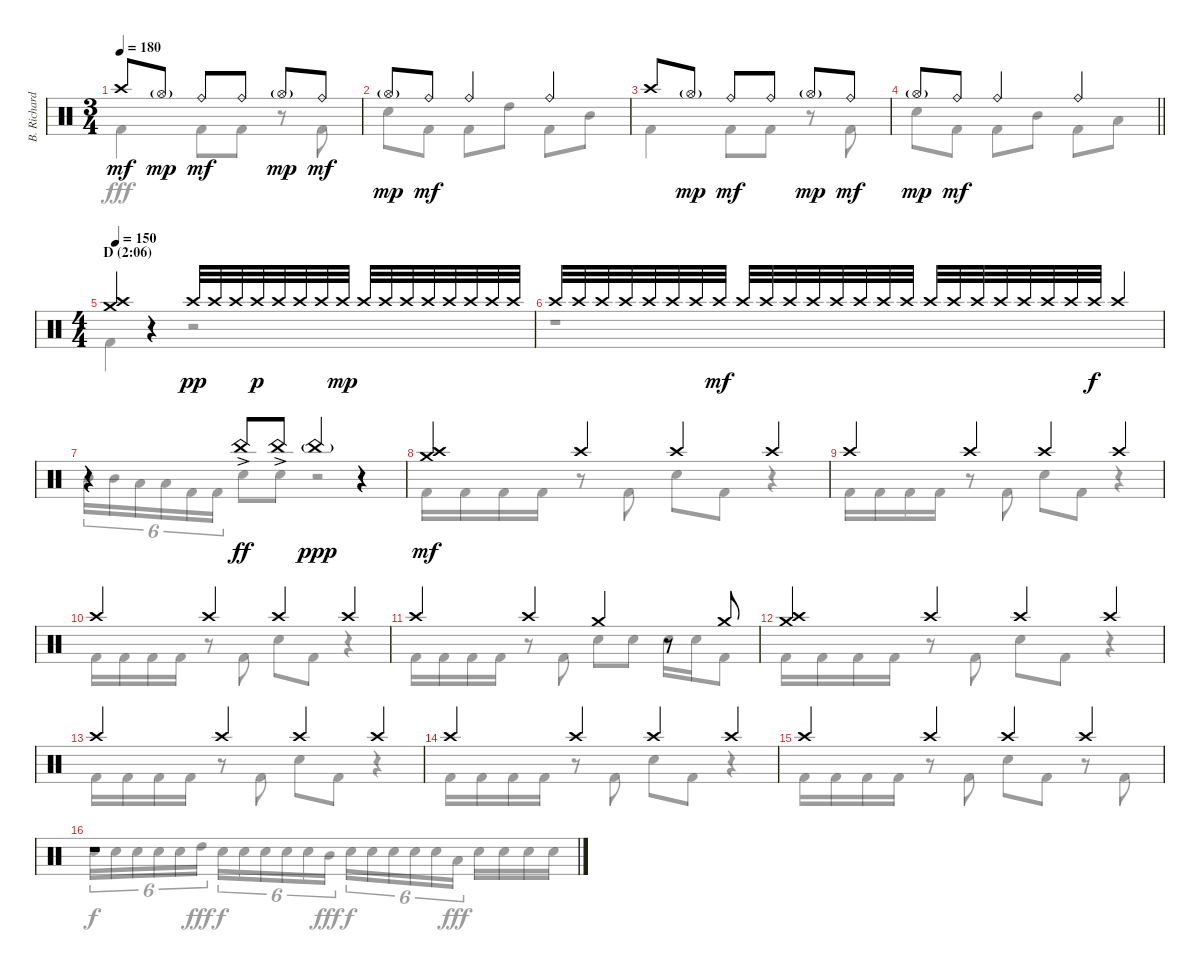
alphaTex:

\track ("B. Richardson Drums" "B. Richard") {instrument percussion}
\staff {score}
\articulation defaults
\voice
\ts (3 4)
\tempo 180
\clef neutral
\ks c "Crash high (hit)".8{dy mf} "Hi-Hat (open)"{g}.8{dy mp} "Ride (bell)".8{dy mf} "Ride (bell)".8 "Hi-Hat (open)"{g}.8{dy mp} "Ride (bell)".8{dy mf}
|
"Hi-Hat (open)"{g}.8{dy mp} "Ride (bell)".8{dy mf} "Ride (bell)".4 "Ride (bell)".4 |
"Crash high (hit)".8 "Hi-Hat (open)"{g}.8{dy mp} "Ride (bell)".8{dy mf} "Ride (bell)".8 "Hi-Hat (open)"{g}.8{dy mp} "Ride (bell)".8{dy mf} |
\barLineRight lightlight "Hi-Hat (open)"{g}.8{dy mp} "Ride (bell)".8{dy mf} "Ride (bell)".4 "Ride (bell)".4
|
\ts (4 4)
\section ("" "D (2:06)")
\tempo 150
("Crash high (hit)" "Crash medium (hit)").4 r.4 "Crash high (hit)".32{dy pp} "Crash high (hit)".32 "Crash high (hit)".32 "Crash high (hit)".32{dy p} "Crash high (hit)".32 "Crash high (hit)".32 "Crash high (hit)".32 "Crash high (hit)".32{dy mp} "Crash high (hit)".32 "Crash high (hit)".32 "Crash high (hit)".32 "Crash high (hit)".32 "Crash high (hit)".32 "Crash high (hit)".32 "Crash high (hit)".32 "Crash high (hit)".32 |
"Crash high (hit)".32 "Crash high (hit)".32 "Crash high (hit)".32 "Crash high (hit)".32 "Crash high (hit)".32 "Crash high (hit)".32 "Crash high (hit)".32 "Crash high (hit)".32{dy mf} "Crash high (hit)".32 "Crash high (hit)".32 "Crash high (hit)".32 "Crash high (hit)".32 "Crash high (hit)".32 "Crash high (hit)".32 "Crash high (hit)".32 "Crash high (hit)".32 "Crash high (hit)".32 "Crash high (hit)".32 "Crash high (hit)".32 "Crash high (hit)".32 "Crash high (hit)".32 "Crash high (hit)".32 "Crash high (hit)".32 "Crash high (hit)".32{dy f} "Crash high (hit)".4 |
r.4 "China (hit)"{ac}.8{dy ff} "China (hit)"{ac}.8 "China (hit)"{g}.4{dy ppp} r.4 |
("Crash high (hit)" "Crash medium (hit)").4{dy mf} "Crash high (hit)".4 "Crash high (hit)".4 "Crash high (hit)".4 |
"Crash high (hit)".4 "Crash high (hit)".4 "Crash high (hit)".4 "Crash high (hit)".4 |
"Crash high (hit)".4 "Crash high (hit)".4 "Crash high (hit)".4 "Crash high (hit)".4 |
"Crash high (hit)".4 "Crash high (hit)".4 "Crash medium (hit)".4 r.8 "Crash medium (hit)".8 |
("Crash high (hit)" "Crash medium (hit)").4 "Crash high (hit)".4 "Crash high (hit)".4 "Crash high (hit)".4 |
"Crash high (hit)".4 "Crash high (hit)".4 "Crash high (hit)".4 "Crash high (hit)".4 |
"Crash high (hit)".4 "Crash high (hit)".4 "Crash high (hit)".4 "Crash high (hit)".4 |
"Crash high (hit)".4 "Crash high (hit)".4 "Crash high (hit)".4 "Crash high (hit)".4 |
r.1
\voice
\clef neutral
\ottava regular
\simile none
\ks c "Kick (hit) 2".4{dy fff} "Kick (hit) 2".8 "Kick (hit) 2".8
r.8 "Kick (hit) 2".8 |
"Electric Snare (hit)".8 "Kick (hit) 2".8 "Kick (hit) 2".8 "High Tom (hit)".8 "Kick (hit) 2".8 "Mid Tom (hit)".8 |
"Kick (hit) 2".4 "Kick (hit) 2".8 "Kick (hit) 2".8 r.8 "Kick (hit) 2".8 |
\barLineRight lightlight "Electric Snare (hit)".8 "Kick (hit) 2".8 "Kick (hit) 2".8 "Mid Tom (hit)".8 "Kick (hit) 2".8 "Low Tom (hit)".8
|
"Kick (hit) 2".4 r.4 r.2 |
r.1 |
"Mid Tom (hit)".16{tu (6 4)} "Mid Tom (hit)".16{tu (6 4)} "Low Tom (hit)".16{tu (6 4)} "Low Tom (hit)".16{tu (6 4)} "Kick (hit) 2".16{tu (6 4)} "Kick (hit) 2".16{tu (6 4)} "Electric Snare (hit)".8 "Electric Snare (hit)".8 r.2 |
"Kick (hit) 2".16 "Kick (hit) 2".16 "Kick (hit) 2".16 "Kick (hit) 2".16 r.8 "Kick (hit) 2".8 "Electric Snare (hit)".8 "Kick (hit) 2".8 r.4 |
"Kick (hit) 2".16 "Kick (hit) 2".16 "Kick (hit) 2".16 "Kick (hit) 2".16 r.8 "Kick (hit) 2".8 "Electric Snare (hit)".8 "Kick (hit) 2".8 r.4 |
"Kick (hit) 2".16 "Kick (hit) 2".16 "Kick (hit) 2".16 "Kick (hit) 2".16 r.8 "Kick (hit) 2".8 "Electric Snare (hit)".8 "Kick (hit) 2".8 r.4 |
"Kick (hit) 2".16 "Kick (hit) 2".16 "Kick (hit) 2".16 "Kick (hit) 2".16 r.8 "Kick (hit) 2".8 "Electric Snare (hit)".8 "Electric Snare (hit)".8 "Electric Snare (hit)".16 "Electric Snare (hit)".16 "Kick (hit) 2".8 |
"Kick (hit) 2".16 "Kick (hit) 2".16 "Kick (hit) 2".16 "Kick (hit) 2".16 r.8 "Kick (hit) 2".8 "Electric Snare (hit)".8 "Kick (hit) 2".8 r.4 |
"Kick (hit) 2".16 "Kick (hit) 2".16 "Kick (hit) 2".16 "Kick (hit) 2".16 r.8 "Kick (hit) 2".8 "Electric Snare (hit)".8 "Kick (hit) 2".8 r.4 |
"Kick (hit) 2".16 "Kick (hit) 2".16 "Kick (hit) 2".16 "Kick (hit) 2".16 r.8 "Kick (hit) 2".8 "Electric Snare (hit)".8 "Kick (hit) 2".8 r.4 |
"Kick (hit) 2".16 "Kick (hit) 2".16 "Kick (hit) 2".16 "Kick (hit) 2".16 r.8 "Kick (hit) 2".8 "Electric Snare (hit)".8 "Kick (hit) 2".8 r.8 "Kick (hit) 2".8 |
"Electric Snare (hit)".16{tu (6 4) dy f} "Electric Snare (hit)".16{tu (6 4)} "Electric Snare (hit)".16{tu (6 4)} "Electric Snare (hit)".16{tu (6 4)} "Electric Snare (hit)".16{tu (6 4)} "High Tom (hit)".16{tu (6 4) dy fff} "Electric Snare (hit)".16{tu (6 4) dy f} "Electric Snare (hit)".16{tu (6 4)} "Electric Snare (hit)".16{tu (6 4)} "Electric Snare (hit)".16{tu (6 4)} "Electric Snare (hit)".16{tu (6 4)} "Mid Tom (hit)".16{tu (6 4) dy fff} "Electric Snare (hit)".16{tu (6 4) dy f} "Electric Snare (hit)".16{tu (6 4)} "Electric Snare (hit)".16{tu (6 4)} "Electric Snare (hit)".16{tu (6 4)} "Electric Snare (hit)".16{tu (6 4)} "Low Tom (hit)".16{tu (6 4) dy fff} "Electric Snare (hit)".16 "Electric Snare (hit)".16 "Electric Snare (hit)".16 "Electric Snare (hit)".16
